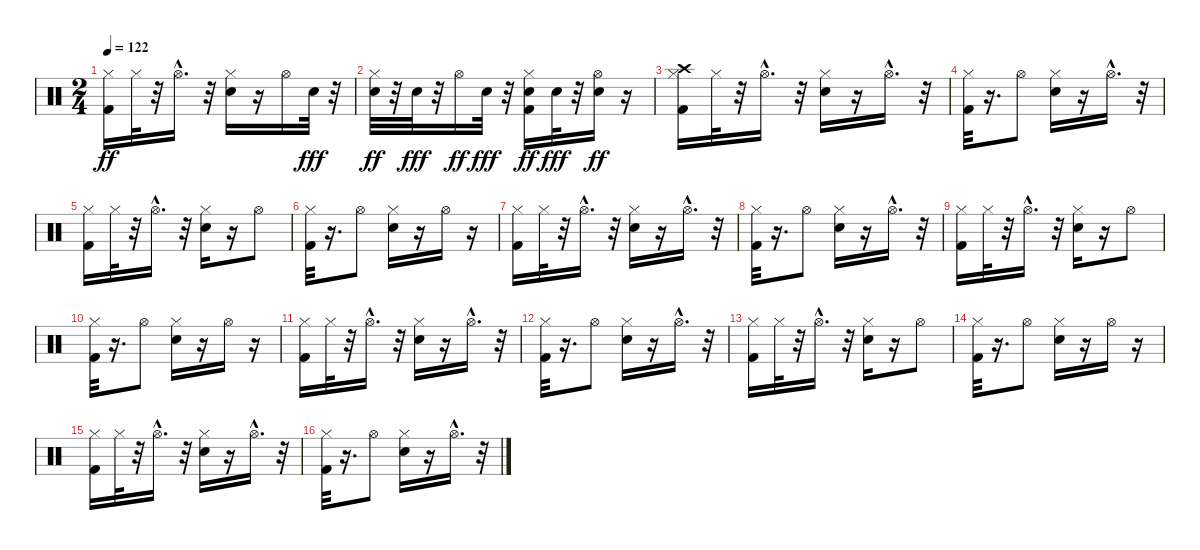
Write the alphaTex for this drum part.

\track "" {instrument percussion}
\staff {score}
\articulation defaults
\ts (2 4)
\tempo 122
\clef neutral
\ks c
("Kick (hit) 2" "Hi-Hat (closed)").16{dy ff} "Hi-Hat (closed)".32 r.32 "Hi-Hat (open)"{hac}.16{d} r.32 ("Snare (hit) 2" "Hi-Hat (closed)").16 r.16 "Hi-Hat (open)".16 "Snare (hit) 2".32{dy fff} r.32 |
("Snare (hit) 2" "Hi-Hat (closed)").32{dy ff} r.32 "Snare (hit) 2".32{dy fff} r.32 "Hi-Hat (open)".16{dy ff} "Snare (hit) 2".32{dy fff} r.32 ("Kick (hit) 2" "Snare (hit) 2" "Hi-Hat (closed)").16{dy ff} "Snare (hit) 2".32{dy fff} r.32 ("Snare (hit) 2" "Hi-Hat (open)").16{dy ff} r.16 |
("Kick (hit) 2" "Crash high (hit)" "Hi-Hat (closed)").16 "Hi-Hat (closed)".32 r.32 "Hi-Hat (open)"{hac}.16{d} r.32 ("Snare (hit) 2" "Hi-Hat (closed)").16 r.16 "Hi-Hat (open)"{hac}.16{d} r.32 |
("Kick (hit) 2" "Hi-Hat (closed)").32 r.16{d} "Hi-Hat (open)".8 ("Snare (hit) 2" "Hi-Hat (closed)").16 r.16 "Hi-Hat (open)"{hac}.16{d} r.32 |
("Kick (hit) 2" "Hi-Hat (closed)").16 "Hi-Hat (closed)".32 r.32 "Hi-Hat (open)"{hac}.16{d} r.32 ("Snare (hit) 2" "Hi-Hat (closed)").16 r.16 "Hi-Hat (open)".8 |
("Kick (hit) 2" "Hi-Hat (closed)").32 r.16{d} "Hi-Hat (open)".8 ("Snare (hit) 2" "Hi-Hat (closed)").16 r.16 "Hi-Hat (open)".16 r.16 |
("Kick (hit) 2" "Hi-Hat (closed)").16 "Hi-Hat (closed)".32 r.32 "Hi-Hat (open)"{hac}.16{d} r.32 ("Snare (hit) 2" "Hi-Hat (closed)").16 r.16 "Hi-Hat (open)"{hac}.16{d} r.32 |
("Kick (hit) 2" "Hi-Hat (closed)").32 r.16{d} "Hi-Hat (open)".8 ("Snare (hit) 2" "Hi-Hat (closed)").16 r.16 "Hi-Hat (open)"{hac}.16{d} r.32 |
("Kick (hit) 2" "Hi-Hat (closed)").16 "Hi-Hat (closed)".32 r.32 "Hi-Hat (open)"{hac}.16{d} r.32 ("Snare (hit) 2" "Hi-Hat (closed)").16 r.16 "Hi-Hat (open)".8 |
("Kick (hit) 2" "Hi-Hat (closed)").32 r.16{d} "Hi-Hat (open)".8 ("Snare (hit) 2" "Hi-Hat (closed)").16 r.16 "Hi-Hat (open)".16 r.16 |
("Kick (hit) 2" "Hi-Hat (closed)").16 "Hi-Hat (closed)".32 r.32 "Hi-Hat (open)"{hac}.16{d} r.32 ("Snare (hit) 2" "Hi-Hat (closed)").16 r.16 "Hi-Hat (open)"{hac}.16{d} r.32 |
("Kick (hit) 2" "Hi-Hat (closed)").32 r.16{d} "Hi-Hat (open)".8 ("Snare (hit) 2" "Hi-Hat (closed)").16 r.16 "Hi-Hat (open)"{hac}.16{d} r.32 |
("Kick (hit) 2" "Hi-Hat (closed)").16 "Hi-Hat (closed)".32 r.32 "Hi-Hat (open)"{hac}.16{d} r.32 ("Snare (hit) 2" "Hi-Hat (closed)").16 r.16 "Hi-Hat (open)".8 |
("Kick (hit) 2" "Hi-Hat (closed)").32 r.16{d} "Hi-Hat (open)".8 ("Snare (hit) 2" "Hi-Hat (closed)").16 r.16 "Hi-Hat (open)".16 r.16 |
("Kick (hit) 2" "Hi-Hat (closed)").16 "Hi-Hat (closed)".32 r.32 "Hi-Hat (open)"{hac}.16{d} r.32 ("Snare (hit) 2" "Hi-Hat (closed)").16 r.16 "Hi-Hat (open)"{hac}.16{d} r.32 |
("Kick (hit) 2" "Hi-Hat (closed)").32 r.16{d} "Hi-Hat (open)".8 ("Snare (hit) 2" "Hi-Hat (closed)").16 r.16 "Hi-Hat (open)"{hac}.16{d} r.32
